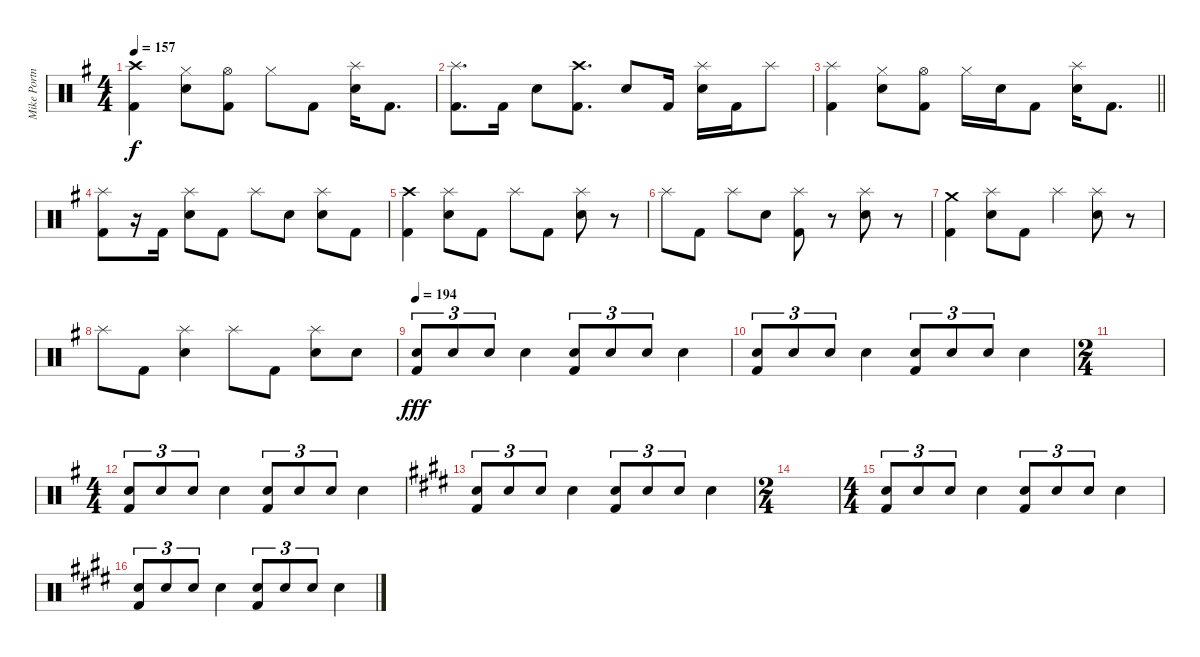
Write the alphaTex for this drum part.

\track ("Mike Portnoy" "Mike Portn") {instrument percussion}
\staff {score}
\articulation defaults
\ts (4 4)
\tempo 157
\clef neutral
\ks g
("Kick (hit) 2" "Crash high (hit)").4{dy f} ("Snare (hit) 2" "Hi-Hat (closed)").8 ("Kick (hit) 2" "Hi-Hat (open)").8 "Hi-Hat (closed)".8 "Kick (hit) 2".8 ("Snare (hit) 2" "Splash (hit)").16 "Kick (hit) 2".8{d} |
("Kick (hit) 2" "Splash (hit)").8{d} "Kick (hit) 2".16 "Snare (hit) 2".8 ("Kick (hit) 2" "Crash high (hit)").8{d} "Snare (hit) 2".8 "Kick (hit) 2".16 ("Snare (hit) 2" "Splash (hit)").16 "Kick (hit) 2".16 "Splash (hit)".8 |
\barLineRight lightlight
("Kick (hit) 2" "Splash (hit)").4 ("Snare (hit) 2" "Hi-Hat (closed)").8 ("Kick (hit) 2" "Hi-Hat (open)").8 "Hi-Hat (closed)".16 "Snare (hit) 2".16 "Kick (hit) 2".8 ("Snare (hit) 2" "Splash (hit)").16 "Kick (hit) 2".8{d} |
("Kick (hit) 2" "Splash (hit)").8 r.16 "Kick (hit) 2".16 ("Snare (hit) 2" "Splash (hit)").8 "Kick (hit) 2".8 "Splash (hit)".8 "Snare (hit) 2".8 ("Snare (hit) 2" "Splash (hit)").8 "Kick (hit) 2".8 |
("Kick (hit) 2" "Crash high (hit)").4 ("Snare (hit) 2" "Splash (hit)").8 "Kick (hit) 2".8 "Splash (hit)".8 "Kick (hit) 2".8 ("Snare (hit) 2" "Splash (hit)").8 r.8 |
"Splash (hit)".8 "Kick (hit) 2".8 "Splash (hit)".8 "Snare (hit) 2".8 ("Kick (hit) 2" "Splash (hit)").8 r.8 ("Snare (hit) 2" "Splash (hit)").8 r.8 |
("Kick (hit) 2" "Crash medium (hit)").4 ("Snare (hit) 2" "Splash (hit)").8 "Kick (hit) 2".8 "Splash (hit)".4 ("Snare (hit) 2" "Splash (hit)").8 r.8 |
"Splash (hit)".8 "Kick (hit) 2".8 ("Snare (hit) 2" "Splash (hit)").4 "Splash (hit)".8 "Kick (hit) 2".8 ("Snare (hit) 2" "Splash (hit)").8 "Snare (hit) 2".8 |
\tempo 194
("Kick (hit) 2" "Snare (hit) 2").8{tu (3 2) dy fff} "Snare (hit) 2".8{tu (3 2)} "Snare (hit) 2".8{tu (3 2)} "Snare (hit) 2".4 ("Kick (hit) 2" "Snare (hit) 2").8{tu (3 2)} "Snare (hit) 2".8{tu (3 2)} "Snare (hit) 2".8{tu (3 2)} "Snare (hit) 2".4 |
("Kick (hit) 2" "Snare (hit) 2").8{tu (3 2)} "Snare (hit) 2".8{tu (3 2)} "Snare (hit) 2".8{tu (3 2)} "Snare (hit) 2".4 ("Kick (hit) 2" "Snare (hit) 2").8{tu (3 2)} "Snare (hit) 2".8{tu (3 2)} "Snare (hit) 2".8{tu (3 2)} "Snare (hit) 2".4 |
\ts (2 4)
|
\ts (4 4)
("Kick (hit) 2" "Snare (hit) 2").8{tu (3 2)} "Snare (hit) 2".8{tu (3 2)} "Snare (hit) 2".8{tu (3 2)} "Snare (hit) 2".4 ("Kick (hit) 2" "Snare (hit) 2").8{tu (3 2)} "Snare (hit) 2".8{tu (3 2)} "Snare (hit) 2".8{tu (3 2)} "Snare (hit) 2".4 |
\ks c#minor
("Kick (hit) 2" "Snare (hit) 2").8{tu (3 2)} "Snare (hit) 2".8{tu (3 2)} "Snare (hit) 2".8{tu (3 2)} "Snare (hit) 2".4 ("Kick (hit) 2" "Snare (hit) 2").8{tu (3 2)} "Snare (hit) 2".8{tu (3 2)} "Snare (hit) 2".8{tu (3 2)} "Snare (hit) 2".4 |
\ts (2 4)
|
\ts (4 4)
\ks e
("Kick (hit) 2" "Snare (hit) 2").8{tu (3 2)} "Snare (hit) 2".8{tu (3 2)} "Snare (hit) 2".8{tu (3 2)} "Snare (hit) 2".4 ("Kick (hit) 2" "Snare (hit) 2").8{tu (3 2)} "Snare (hit) 2".8{tu (3 2)} "Snare (hit) 2".8{tu (3 2)} "Snare (hit) 2".4 |
\ks c#minor
("Kick (hit) 2" "Snare (hit) 2").8{tu (3 2)} "Snare (hit) 2".8{tu (3 2)} "Snare (hit) 2".8{tu (3 2)} "Snare (hit) 2".4 ("Kick (hit) 2" "Snare (hit) 2").8{tu (3 2)} "Snare (hit) 2".8{tu (3 2)} "Snare (hit) 2".8{tu (3 2)} "Snare (hit) 2".4
